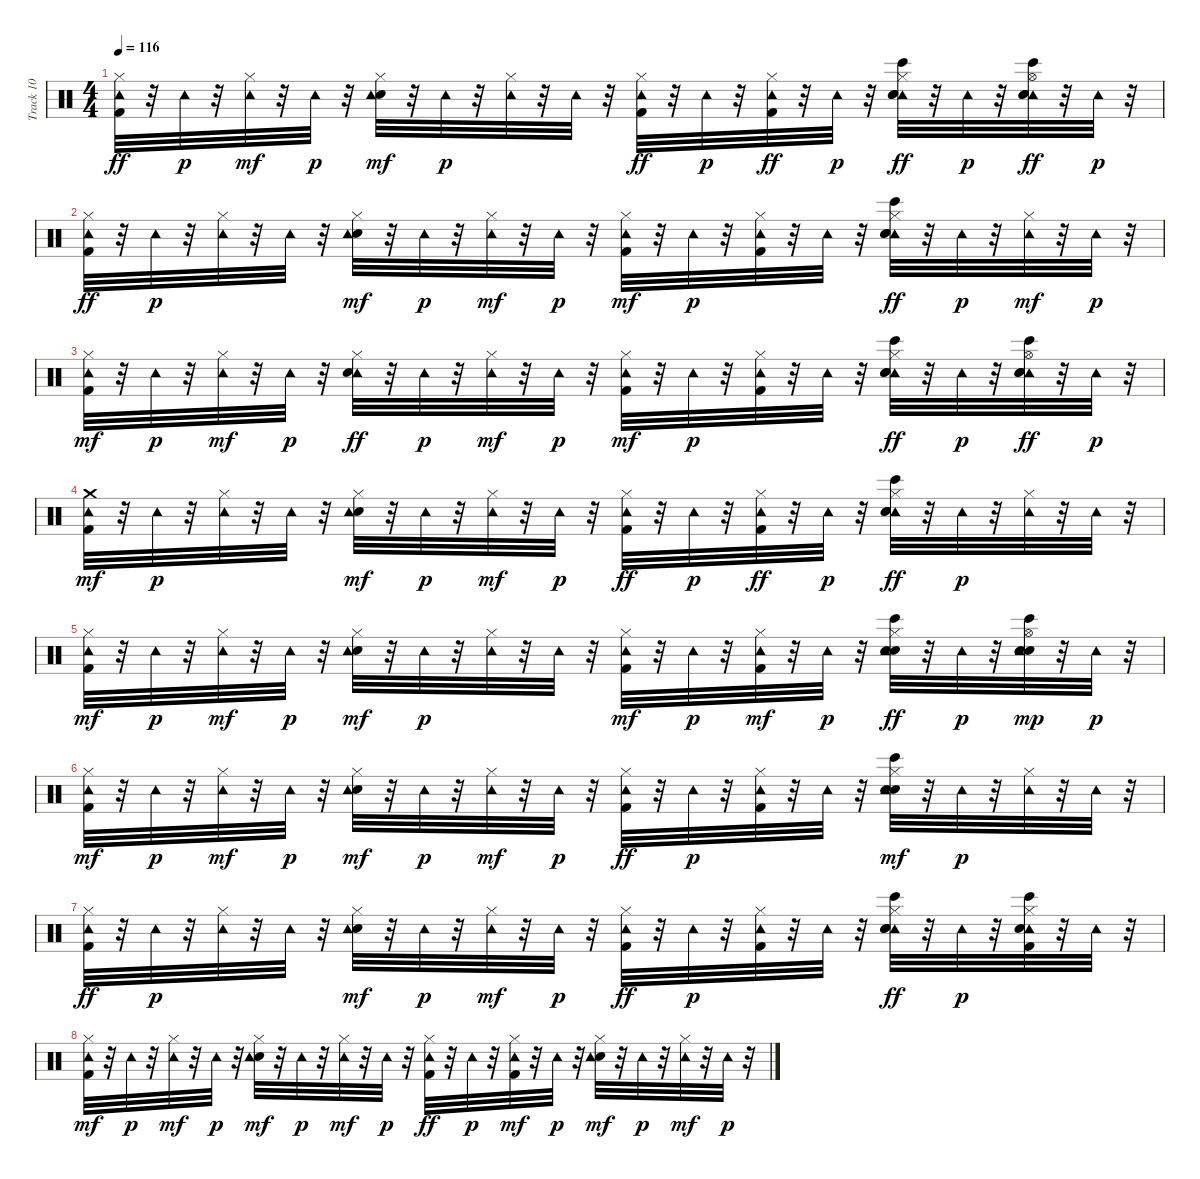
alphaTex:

\track ("Track 10" "Track 10") {instrument percussion}
\staff {score}
\articulation defaults
\ts (4 4)
\tempo 116
\clef neutral
\ks c
("Tambourine (hit)" "Kick (hit) 2" "Hi-Hat (closed)").32{dy ff} r.32 "Tambourine (hit)".32{dy p} r.32 ("Hi-Hat (closed)" "Tambourine (hit)").32{dy mf} r.32 "Tambourine (hit)".32{dy p} r.32 ("Snare (hit) 2" "Tambourine (hit)" "Hi-Hat (closed)").32{dy mf} r.32 "Tambourine (hit)".32{dy p} r.32 ("Tambourine (hit)" "Hi-Hat (closed)").32 r.32 "Tambourine (hit)".32 r.32 ("Tambourine (hit)" "Hi-Hat (closed)" "Kick (hit) 2").32{dy ff} r.32 "Tambourine (hit)".32{dy p} r.32 ("Tambourine (hit)" "Hi-Hat (closed)" "Kick (hit) 2").32{dy ff} r.32 "Tambourine (hit)".32{dy p} r.32 ("Tambourine (hit)" "Hi-Hat (closed)" "Snare (hit) 2" "Bongo High (hit)" "Hand Clap (hit)").32{dy ff} r.32 "Tambourine (hit)".32{dy p} r.32 ("Tambourine (hit)" "Snare (hit) 2" "Hi-Hat (open)" "Bongo High (hit)" "Hand Clap (hit)").32{dy ff} r.32 "Tambourine (hit)".32{dy p} r.32 |
("Tambourine (hit)" "Kick (hit) 2" "Hi-Hat (closed)").32{dy ff} r.32 "Tambourine (hit)".32{dy p} r.32 ("Tambourine (hit)" "Hi-Hat (closed)").32 r.32 "Tambourine (hit)".32 r.32 ("Snare (hit) 2" "Hi-Hat (closed)" "Tambourine (hit)").32{dy mf} r.32 "Tambourine (hit)".32{dy p} r.32 ("Hi-Hat (closed)" "Tambourine (hit)").32{dy mf} r.32 "Tambourine (hit)".32{dy p} r.32 ("Kick (hit) 2" "Tambourine (hit)" "Hi-Hat (closed)").32{dy mf} r.32 "Tambourine (hit)".32{dy p} r.32 ("Tambourine (hit)" "Kick (hit) 2" "Hi-Hat (closed)").32 r.32 "Tambourine (hit)".32 r.32 ("Tambourine (hit)" "Hand Clap (hit)" "Snare (hit) 2" "Bongo High (hit)" "Hi-Hat (closed)").32{dy ff} r.32 "Tambourine (hit)".32{dy p} r.32 ("Hi-Hat (closed)" "Tambourine (hit)").32{dy mf} r.32 "Tambourine (hit)".32{dy p} r.32 |
("Kick (hit) 2" "Tambourine (hit)" "Hi-Hat (closed)").32{dy mf} r.32 "Tambourine (hit)".32{dy p} r.32 ("Hi-Hat (closed)" "Tambourine (hit)").32{dy mf} r.32 "Tambourine (hit)".32{dy p} r.32 ("Tambourine (hit)" "Hi-Hat (closed)" "Snare (hit) 2").32{dy ff} r.32 "Tambourine (hit)".32{dy p} r.32 ("Hi-Hat (closed)" "Tambourine (hit)").32{dy mf} r.32 "Tambourine (hit)".32{dy p} r.32 ("Hi-Hat (closed)" "Kick (hit) 2" "Tambourine (hit)").32{dy mf} r.32 "Tambourine (hit)".32{dy p} r.32 ("Kick (hit) 2" "Tambourine (hit)" "Hi-Hat (closed)").32 r.32 "Tambourine (hit)".32 r.32 ("Hi-Hat (closed)" "Tambourine (hit)" "Snare (hit) 2" "Hand Clap (hit)" "Bongo High (hit)").32{dy ff} r.32 "Tambourine (hit)".32{dy p} r.32 ("Tambourine (hit)" "Snare (hit) 2" "Hi-Hat (open)" "Hand Clap (hit)" "Bongo High (hit)").32{dy ff} r.32 "Tambourine (hit)".32{dy p} r.32 |
("Kick (hit) 2" "Crash medium (hit)" "Tambourine (hit)").32{dy mf} r.32 "Tambourine (hit)".32{dy p} r.32 ("Tambourine (hit)" "Hi-Hat (closed)").32 r.32 "Tambourine (hit)".32 r.32 ("Hi-Hat (closed)" "Snare (hit) 2" "Tambourine (hit)").32{dy mf} r.32 "Tambourine (hit)".32{dy p} r.32 ("Hi-Hat (closed)" "Tambourine (hit)").32{dy mf} r.32 "Tambourine (hit)".32{dy p} r.32 ("Tambourine (hit)" "Hi-Hat (closed)" "Kick (hit) 2").32{dy ff} r.32 "Tambourine (hit)".32{dy p} r.32 ("Tambourine (hit)" "Hi-Hat (closed)" "Kick (hit) 2").32{dy ff} r.32 "Tambourine (hit)".32{dy p} r.32 ("Tambourine (hit)" "Snare (hit) 2" "Hand Clap (hit)" "Bongo High (hit)" "Hi-Hat (closed)").32{dy ff} r.32 "Tambourine (hit)".32{dy p} r.32 ("Tambourine (hit)" "Hi-Hat (closed)").32 r.32 "Tambourine (hit)".32 r.32 |
("Kick (hit) 2" "Tambourine (hit)" "Hi-Hat (closed)").32{dy mf} r.32 "Tambourine (hit)".32{dy p} r.32 ("Hi-Hat (closed)" "Tambourine (hit)").32{dy mf} r.32 "Tambourine (hit)".32{dy p} r.32 ("Hi-Hat (closed)" "Snare (hit) 2" "Tambourine (hit)").32{dy mf} r.32 "Tambourine (hit)".32{dy p} r.32 ("Tambourine (hit)" "Hi-Hat (closed)").32 r.32 "Tambourine (hit)".32 r.32 ("Kick (hit) 2" "Hi-Hat (closed)" "Tambourine (hit)").32{dy mf} r.32 "Tambourine (hit)".32{dy p} r.32 ("Hi-Hat (closed)" "Kick (hit) 2" "Tambourine (hit)").32{dy mf} r.32 "Tambourine (hit)".32{dy p} r.32 ("Snare (hit) 2" "Bongo High (hit)" "Tambourine (hit)" "Hand Clap (hit)" "Hi-Hat (closed)").32{dy ff} r.32 "Tambourine (hit)".32{dy p} r.32 ("Hand Clap (hit)" "Snare (hit) 2" "Bongo High (hit)" "Tambourine (hit)" "Hi-Hat (open)").32{dy mp} r.32 "Tambourine (hit)".32{dy p} r.32 |
("Kick (hit) 2" "Tambourine (hit)" "Hi-Hat (closed)").32{dy mf} r.32 "Tambourine (hit)".32{dy p} r.32 ("Hi-Hat (closed)" "Tambourine (hit)").32{dy mf} r.32 "Tambourine (hit)".32{dy p} r.32 ("Snare (hit) 2" "Tambourine (hit)" "Hi-Hat (closed)").32{dy mf} r.32 "Tambourine (hit)".32{dy p} r.32 ("Hi-Hat (closed)" "Tambourine (hit)").32{dy mf} r.32 "Tambourine (hit)".32{dy p} r.32 ("Hi-Hat (closed)" "Tambourine (hit)" "Kick (hit) 2").32{dy ff} r.32 "Tambourine (hit)".32{dy p} r.32 ("Tambourine (hit)" "Kick (hit) 2" "Hi-Hat (closed)").32 r.32 "Tambourine (hit)".32 r.32 ("Bongo High (hit)" "Hand Clap (hit)" "Snare (hit) 2" "Hi-Hat (closed)" "Tambourine (hit)").32{dy mf} r.32 "Tambourine (hit)".32{dy p} r.32 ("Tambourine (hit)" "Hi-Hat (closed)").32 r.32 "Tambourine (hit)".32 r.32 |
("Tambourine (hit)" "Kick (hit) 2" "Hi-Hat (closed)").32{dy ff} r.32 "Tambourine (hit)".32{dy p} r.32 ("Tambourine (hit)" "Hi-Hat (closed)").32 r.32 "Tambourine (hit)".32 r.32 ("Snare (hit) 2" "Tambourine (hit)" "Hi-Hat (closed)").32{dy mf} r.32 "Tambourine (hit)".32{dy p} r.32 ("Hi-Hat (closed)" "Tambourine (hit)").32{dy mf} r.32 "Tambourine (hit)".32{dy p} r.32 ("Tambourine (hit)" "Kick (hit) 2" "Hi-Hat (closed)").32{dy ff} r.32 "Tambourine (hit)".32{dy p} r.32 ("Tambourine (hit)" "Kick (hit) 2" "Hi-Hat (closed)").32 r.32 "Tambourine (hit)".32 r.32 ("Hi-Hat (closed)" "Tambourine (hit)" "Snare (hit) 2" "Hand Clap (hit)" "Bongo High (hit)").32{dy ff} r.32 "Tambourine (hit)".32{dy p} r.32 ("Tambourine (hit)" "Kick (hit) 2" "Hand Clap (hit)" "Bongo High (hit)" "Hi-Hat (closed)").32 r.32 "Tambourine (hit)".32 r.32 |
("Hi-Hat (closed)" "Kick (hit) 2" "Tambourine (hit)").32{dy mf} r.32 "Tambourine (hit)".32{dy p} r.32 ("Hi-Hat (closed)" "Tambourine (hit)").32{dy mf} r.32 "Tambourine (hit)".32{dy p} r.32 ("Snare (hit) 2" "Hi-Hat (closed)" "Tambourine (hit)").32{dy mf} r.32 "Tambourine (hit)".32{dy p} r.32 ("Hi-Hat (closed)" "Tambourine (hit)").32{dy mf} r.32 "Tambourine (hit)".32{dy p} r.32 ("Hi-Hat (closed)" "Tambourine (hit)" "Kick (hit) 2").32{dy ff} r.32 "Tambourine (hit)".32{dy p} r.32 ("Hi-Hat (closed)" "Kick (hit) 2" "Tambourine (hit)").32{dy mf} r.32 "Tambourine (hit)".32{dy p} r.32 ("Hi-Hat (closed)" "Snare (hit) 2" "Tambourine (hit)").32{dy mf} r.32 "Tambourine (hit)".32{dy p} r.32 ("Hi-Hat (closed)" "Tambourine (hit)").32{dy mf} r.32 "Tambourine (hit)".32{dy p} r.32
